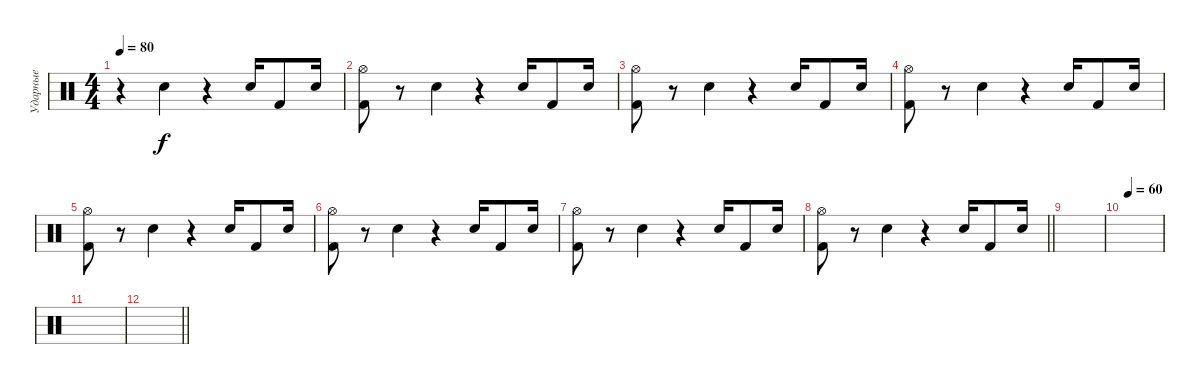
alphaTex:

\track ("Ударные" "Ударные") {instrument percussion}
\staff {score}
\articulation defaults
\ts (4 4)
\tempo 80
\clef neutral
\ks c
r.4{dy f} "Hand Clap (hit)".4 r.4 "Hand Clap (hit)".16 "Kick (hit) 2".8 "Hand Clap (hit)".16 |
("Hi-Hat (open)" "Kick (hit) 2").8 r.8 "Hand Clap (hit)".4 r.4 "Hand Clap (hit)".16 "Kick (hit) 2".8 "Hand Clap (hit)".16 |
("Hi-Hat (open)" "Kick (hit) 2").8 r.8 "Hand Clap (hit)".4 r.4 "Hand Clap (hit)".16 "Kick (hit) 2".8 "Hand Clap (hit)".16 |
("Hi-Hat (open)" "Kick (hit) 2").8 r.8 "Hand Clap (hit)".4 r.4 "Hand Clap (hit)".16 "Kick (hit) 2".8 "Hand Clap (hit)".16 |
("Hi-Hat (open)" "Kick (hit) 2").8{volume 0} r.8 "Hand Clap (hit)".4 r.4 "Hand Clap (hit)".16 "Kick (hit) 2".8 "Hand Clap (hit)".16 |
("Hi-Hat (open)" "Kick (hit) 2").8 r.8 "Hand Clap (hit)".4 r.4 "Hand Clap (hit)".16 "Kick (hit) 2".8 "Hand Clap (hit)".16 |
("Hi-Hat (open)" "Kick (hit) 2").8 r.8 "Hand Clap (hit)".4 r.4 "Hand Clap (hit)".16 "Kick (hit) 2".8 "Hand Clap (hit)".16 |
\barLineRight lightlight
("Hi-Hat (open)" "Kick (hit) 2").8 r.8 "Hand Clap (hit)".4 r.4 "Hand Clap (hit)".16 "Kick (hit) 2".8 "Hand Clap (hit)".16 |
|
\tempo (60 0.125)
|
|
\barLineRight lightlight
